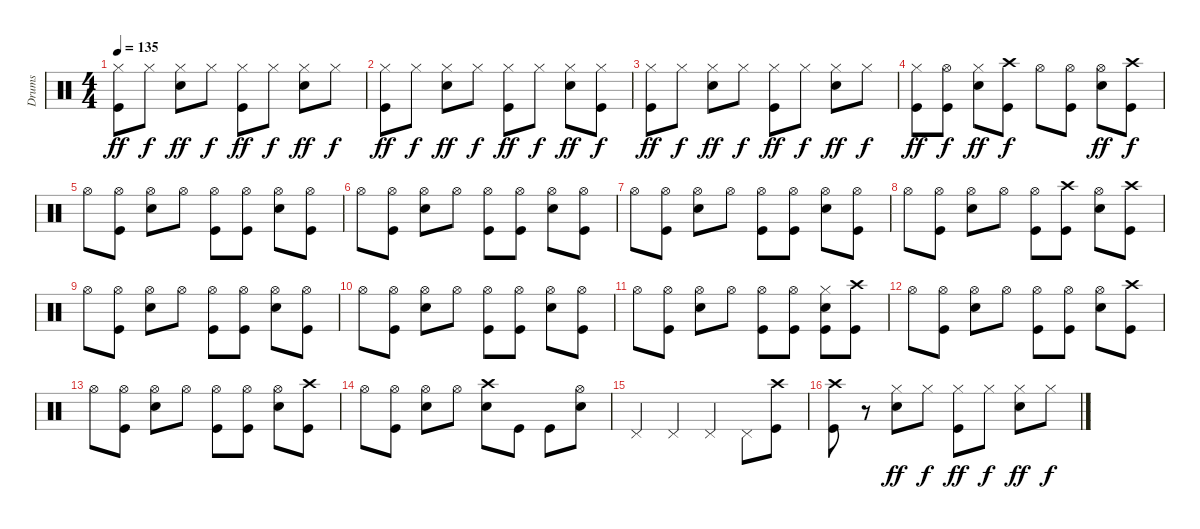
\track ("Drums" "Drums") {instrument percussion}
\staff {score}
\articulation defaults
\ts (4 4)
\tempo 135
\clef neutral
\ks c
("Hi-Hat (closed)" "Kick (hit)").8{dy ff} "Hi-Hat (closed)".8{dy f} ("Hi-Hat (closed)" "Snare (hit) 2").8{dy ff} "Hi-Hat (closed)".8{dy f} ("Hi-Hat (closed)" "Kick (hit)").8{dy ff} "Hi-Hat (closed)".8{dy f} ("Hi-Hat (closed)" "Snare (hit) 2").8{dy ff} "Hi-Hat (closed)".8{dy f} |
("Hi-Hat (closed)" "Kick (hit)").8{dy ff} "Hi-Hat (closed)".8{dy f} ("Hi-Hat (closed)" "Snare (hit) 2").8{dy ff} "Hi-Hat (closed)".8{dy f} ("Hi-Hat (closed)" "Kick (hit)").8{dy ff} "Hi-Hat (closed)".8{dy f} ("Hi-Hat (closed)" "Snare (hit) 2").8{dy ff} ("Hi-Hat (closed)" "Kick (hit)").8{dy f} |
("Hi-Hat (closed)" "Kick (hit)").8{dy ff} "Hi-Hat (closed)".8{dy f} ("Hi-Hat (closed)" "Snare (hit) 2").8{dy ff} "Hi-Hat (closed)".8{dy f} ("Hi-Hat (closed)" "Kick (hit)").8{dy ff} "Hi-Hat (closed)".8{dy f} ("Hi-Hat (closed)" "Snare (hit) 2").8{dy ff} "Hi-Hat (closed)".8{dy f} |
("Hi-Hat (closed)" "Kick (hit)").8{dy ff} ("Hi-Hat (open)" "Kick (hit)").8{dy f} ("Hi-Hat (closed)" "Snare (hit) 2").8{dy ff} ("Crash high (hit)" "Kick (hit)").8{dy f} "Hi-Hat (open)".8 ("Hi-Hat (open)" "Kick (hit)").8 ("Hi-Hat (open)" "Snare (hit) 2").8{dy ff} ("Crash high (hit)" "Kick (hit)").8{dy f} |
"Hi-Hat (open)".8 ("Hi-Hat (open)" "Kick (hit)").8 ("Hi-Hat (open)" "Snare (hit) 2").8 "Hi-Hat (open)".8 ("Hi-Hat (open)" "Kick (hit)").8 ("Hi-Hat (open)" "Kick (hit)").8 ("Hi-Hat (open)" "Snare (hit) 2").8 ("Hi-Hat (open)" "Kick (hit)").8 |
"Hi-Hat (open)".8 ("Hi-Hat (open)" "Kick (hit)").8 ("Hi-Hat (open)" "Snare (hit) 2").8 "Hi-Hat (open)".8 ("Hi-Hat (open)" "Kick (hit)").8 ("Hi-Hat (open)" "Kick (hit)").8 ("Hi-Hat (open)" "Snare (hit) 2").8 ("Hi-Hat (open)" "Kick (hit)").8 |
"Hi-Hat (open)".8 ("Hi-Hat (open)" "Kick (hit)").8 ("Hi-Hat (open)" "Snare (hit) 2").8 "Hi-Hat (open)".8 ("Hi-Hat (open)" "Kick (hit)").8 ("Hi-Hat (open)" "Kick (hit)").8 ("Hi-Hat (open)" "Snare (hit) 2").8 ("Hi-Hat (open)" "Kick (hit)").8 |
"Hi-Hat (open)".8 ("Hi-Hat (open)" "Kick (hit)").8 ("Hi-Hat (open)" "Snare (hit) 2").8 "Hi-Hat (open)".8 ("Hi-Hat (open)" "Kick (hit)").8 ("Crash high (hit)" "Kick (hit)").8 ("Hi-Hat (open)" "Snare (hit) 2").8 ("Crash high (hit)" "Kick (hit)").8 |
"Hi-Hat (open)".8 ("Hi-Hat (open)" "Kick (hit)").8 ("Hi-Hat (open)" "Snare (hit) 2").8 "Hi-Hat (open)".8 ("Hi-Hat (open)" "Kick (hit)").8 ("Hi-Hat (open)" "Kick (hit)").8 ("Hi-Hat (open)" "Snare (hit) 2").8 ("Hi-Hat (open)" "Kick (hit)").8 |
"Hi-Hat (open)".8 ("Hi-Hat (open)" "Kick (hit)").8 ("Hi-Hat (open)" "Snare (hit) 2").8 "Hi-Hat (open)".8 ("Hi-Hat (open)" "Kick (hit)").8 ("Hi-Hat (open)" "Kick (hit)").8 ("Hi-Hat (open)" "Snare (hit) 2").8 ("Hi-Hat (open)" "Kick (hit)").8 |
"Hi-Hat (open)".8 ("Hi-Hat (open)" "Kick (hit)").8 ("Hi-Hat (open)" "Snare (hit) 2").8 "Hi-Hat (open)".8 ("Hi-Hat (open)" "Kick (hit)").8 ("Hi-Hat (open)" "Kick (hit)").8 ("Hi-Hat (closed)" "Snare (hit) 2" "Kick (hit)").8 ("Crash high (hit)" "Kick (hit)").8 |
"Hi-Hat (open)".8 ("Hi-Hat (open)" "Kick (hit)").8 ("Hi-Hat (open)" "Snare (hit) 2").8 "Hi-Hat (open)".8 ("Hi-Hat (open)" "Kick (hit)").8 ("Hi-Hat (open)" "Kick (hit)").8 ("Hi-Hat (open)" "Snare (hit) 2").8 ("Crash high (hit)" "Kick (hit)").8 |
"Hi-Hat (open)".8 ("Hi-Hat (open)" "Kick (hit)").8 ("Hi-Hat (open)" "Snare (hit) 2").8 "Hi-Hat (open)".8 ("Hi-Hat (open)" "Kick (hit)").8 ("Hi-Hat (open)" "Kick (hit)").8 ("Hi-Hat (open)" "Snare (hit) 2").8 ("Crash high (hit)" "Kick (hit)").8 |
"Hi-Hat (open)".8 ("Hi-Hat (open)" "Kick (hit)").8 ("Hi-Hat (open)" "Snare (hit) 2").8 "Hi-Hat (open)".8 ("Crash high (hit)" "Snare (hit) 2").8 "Kick (hit)".8 "Kick (hit)".8 ("Hi-Hat (open)" "Snare (hit) 2").8 |
"Pedal Hi-Hat (hit)".4 "Pedal Hi-Hat (hit)".4 "Pedal Hi-Hat (hit)".4 "Pedal Hi-Hat (hit)".8 ("Crash high (hit)" "Kick (hit)").8 |
("Crash high (hit)" "Kick (hit)").8 r.8 ("Hi-Hat (closed)" "Snare (hit) 2").8{dy ff} "Hi-Hat (closed)".8{dy f} ("Hi-Hat (closed)" "Kick (hit)").8{dy ff} "Hi-Hat (closed)".8{dy f} ("Hi-Hat (closed)" "Snare (hit) 2").8{dy ff} "Hi-Hat (closed)".8{dy f}
